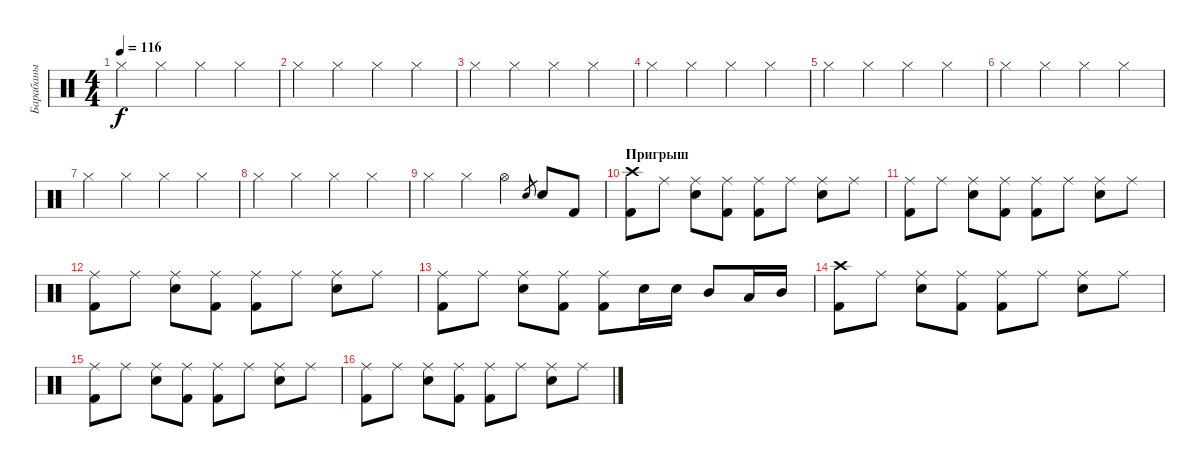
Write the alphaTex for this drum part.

\track ("Барабаны" "Барабаны") {instrument percussion}
\staff {score}
\articulation defaults
\ts (4 4)
\tempo 116
\clef neutral
\ks c "Hi-Hat (closed)".4{dy f} "Hi-Hat (closed)".4 "Hi-Hat (closed)".4 "Hi-Hat (closed)".4
|
"Hi-Hat (closed)".4 "Hi-Hat (closed)".4 "Hi-Hat (closed)".4 "Hi-Hat (closed)".4 |
"Hi-Hat (closed)".4 "Hi-Hat (closed)".4 "Hi-Hat (closed)".4 "Hi-Hat (closed)".4 |
"Hi-Hat (closed)".4 "Hi-Hat (closed)".4 "Hi-Hat (closed)".4 "Hi-Hat (closed)".4 |
"Hi-Hat (closed)".4 "Hi-Hat (closed)".4 "Hi-Hat (closed)".4 "Hi-Hat (closed)".4 |
"Hi-Hat (closed)".4 "Hi-Hat (closed)".4 "Hi-Hat (closed)".4 "Hi-Hat (closed)".4 |
"Hi-Hat (closed)".4 "Hi-Hat (closed)".4 "Hi-Hat (closed)".4 "Hi-Hat (closed)".4 |
"Hi-Hat (closed)".4 "Hi-Hat (closed)".4 "Hi-Hat (closed)".4 "Hi-Hat (closed)".4 |
"Hi-Hat (closed)".4 "Hi-Hat (closed)".4 "Hi-Hat (open)".4{volume 16} "Snare (hit) 2".8{gr} "Snare (hit) 2".8 "Kick (hit) 2".8 |
\section ("" "Пригрыш")
("Crash high (hit)" "Kick (hit) 2").8 "Ride (middle)".8 ("Ride (middle)" "Snare (hit) 2").8 ("Ride (middle)" "Kick (hit) 2").8 ("Ride (middle)" "Kick (hit) 2").8 "Ride (middle)".8 ("Ride (middle)" "Snare (hit) 2").8 "Ride (middle)".8 |
("Ride (middle)" "Kick (hit) 2").8 "Ride (middle)".8 ("Ride (middle)" "Snare (hit) 2").8 ("Ride (middle)" "Kick (hit) 2").8 ("Ride (middle)" "Kick (hit) 2").8 "Ride (middle)".8 ("Ride (middle)" "Snare (hit) 2").8 "Ride (middle)".8 |
("Ride (middle)" "Kick (hit) 2").8 "Ride (middle)".8 ("Ride (middle)" "Snare (hit) 2").8 ("Ride (middle)" "Kick (hit) 2").8 ("Ride (middle)" "Kick (hit) 2").8 "Ride (middle)".8 ("Ride (middle)" "Snare (hit) 2").8 "Ride (middle)".8 |
("Ride (middle)" "Kick (hit) 2").8 "Ride (middle)".8 ("Ride (middle)" "Snare (hit) 2").8 ("Ride (middle)" "Kick (hit) 2").8 ("Ride (middle)" "Kick (hit) 2").8 "Snare (hit) 2".16 "Snare (hit) 2".16 "Mid Tom (hit)".8 "Low Tom (hit)".16 "Mid Tom (hit)".16 |
("Crash high (hit)" "Kick (hit) 2").8 "Ride (middle)".8 ("Ride (middle)" "Snare (hit) 2").8 ("Ride (middle)" "Kick (hit) 2").8 ("Ride (middle)" "Kick (hit) 2").8 "Ride (middle)".8 ("Ride (middle)" "Snare (hit) 2").8 "Ride (middle)".8 |
("Ride (middle)" "Kick (hit) 2").8 "Ride (middle)".8 ("Ride (middle)" "Snare (hit) 2").8 ("Ride (middle)" "Kick (hit) 2").8 ("Ride (middle)" "Kick (hit) 2").8 "Ride (middle)".8 ("Ride (middle)" "Snare (hit) 2").8 "Ride (middle)".8 |
("Ride (middle)" "Kick (hit) 2").8 "Ride (middle)".8 ("Ride (middle)" "Snare (hit) 2").8 ("Ride (middle)" "Kick (hit) 2").8 ("Ride (middle)" "Kick (hit) 2").8 "Ride (middle)".8 ("Ride (middle)" "Snare (hit) 2").8 "Ride (middle)".8
